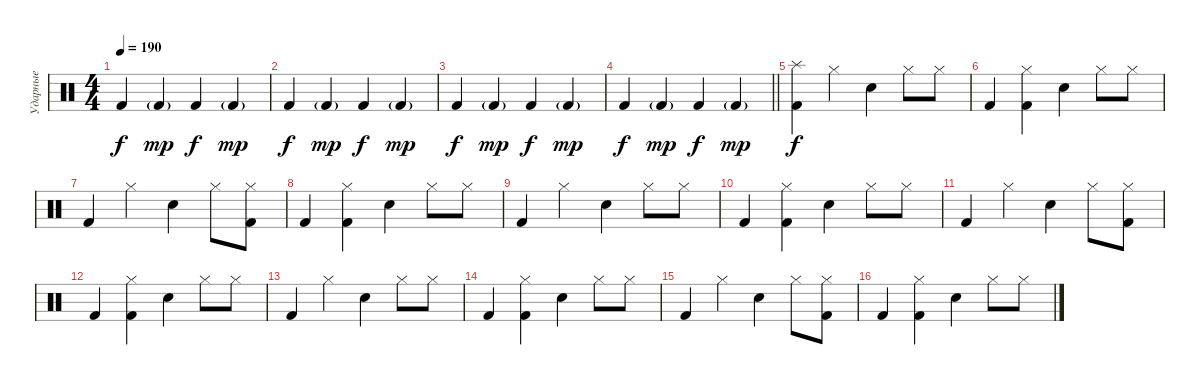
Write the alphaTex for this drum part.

\track ("Ударные" "Ударные") {instrument percussion}
\staff {score}
\articulation defaults
\ts (4 4)
\tempo 190
\clef neutral
\ks c "Kick (hit) 2".4{dy f} "Kick (hit) 2"{g}.4{dy mp} "Kick (hit) 2".4{dy f} "Kick (hit) 2"{g}.4{dy mp}
|
"Kick (hit) 2".4{dy f} "Kick (hit) 2"{g}.4{dy mp} "Kick (hit) 2".4{dy f} "Kick (hit) 2"{g}.4{dy mp} |
"Kick (hit) 2".4{dy f} "Kick (hit) 2"{g}.4{dy mp} "Kick (hit) 2".4{dy f} "Kick (hit) 2"{g}.4{dy mp} |
\barLineRight lightlight "Kick (hit) 2".4{dy f} "Kick (hit) 2"{g}.4{dy mp} "Kick (hit) 2".4{dy f} "Kick (hit) 2"{g}.4{dy mp}
|
\section ("" "")
("Splash (hit)" "Kick (hit) 2").4{dy f} "Hi-Hat (closed)".4 "Electric Snare (hit)".4 "Hi-Hat (closed)".8 "Hi-Hat (closed)".8 |
"Kick (hit) 2".4 ("Kick (hit) 2" "Hi-Hat (closed)").4 "Electric Snare (hit)".4 "Hi-Hat (closed)".8 "Hi-Hat (closed)".8 |
"Kick (hit) 2".4 "Hi-Hat (closed)".4 "Electric Snare (hit)".4 "Hi-Hat (closed)".8 ("Kick (hit) 2" "Hi-Hat (closed)").8 |
"Kick (hit) 2".4 ("Kick (hit) 2" "Hi-Hat (closed)").4 "Electric Snare (hit)".4 "Hi-Hat (closed)".8 "Hi-Hat (closed)".8 |
"Kick (hit) 2".4 "Hi-Hat (closed)".4 "Electric Snare (hit)".4 "Hi-Hat (closed)".8 "Hi-Hat (closed)".8 |
"Kick (hit) 2".4 ("Kick (hit) 2" "Hi-Hat (closed)").4 "Electric Snare (hit)".4 "Hi-Hat (closed)".8 "Hi-Hat (closed)".8 |
"Kick (hit) 2".4 "Hi-Hat (closed)".4 "Electric Snare (hit)".4 "Hi-Hat (closed)".8 ("Kick (hit) 2" "Hi-Hat (closed)").8 |
"Kick (hit) 2".4 ("Kick (hit) 2" "Hi-Hat (closed)").4 "Electric Snare (hit)".4 "Hi-Hat (closed)".8 "Hi-Hat (closed)".8 |
"Kick (hit) 2".4 "Hi-Hat (closed)".4 "Electric Snare (hit)".4 "Hi-Hat (closed)".8 "Hi-Hat (closed)".8 |
"Kick (hit) 2".4 ("Kick (hit) 2" "Hi-Hat (closed)").4 "Electric Snare (hit)".4 "Hi-Hat (closed)".8 "Hi-Hat (closed)".8 |
"Kick (hit) 2".4 "Hi-Hat (closed)".4 "Electric Snare (hit)".4 "Hi-Hat (closed)".8 ("Kick (hit) 2" "Hi-Hat (closed)").8 |
"Kick (hit) 2".4 ("Kick (hit) 2" "Hi-Hat (closed)").4 "Electric Snare (hit)".4 "Hi-Hat (closed)".8 "Hi-Hat (closed)".8
